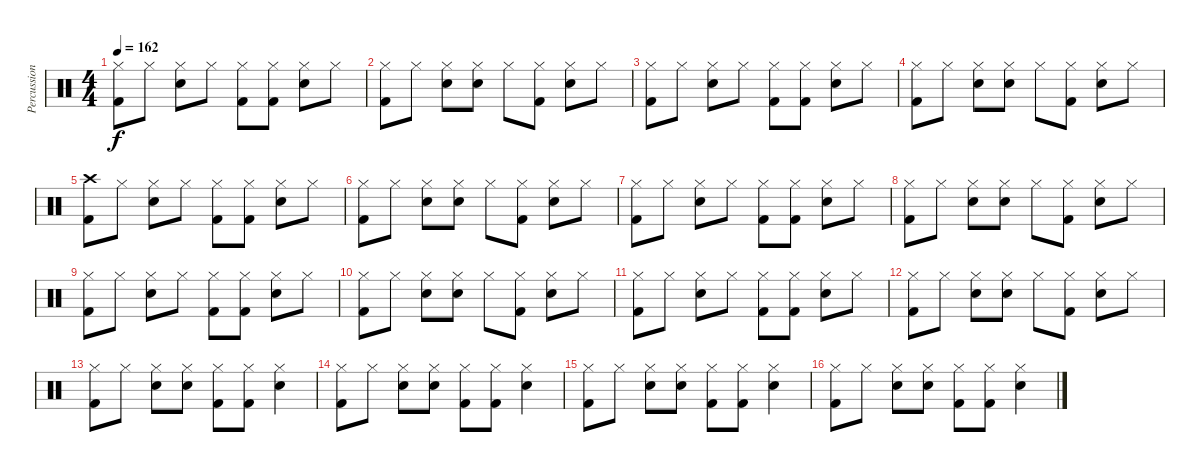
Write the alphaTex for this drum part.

\track ("Percussion" "Percussion") {instrument percussion}
\staff {score}
\articulation defaults
\ts (4 4)
\tempo 162
\clef neutral
\ks c
("Hi-Hat (closed)" "Kick (hit) 2").8{dy f} "Hi-Hat (closed)".8 ("Hi-Hat (closed)" "Electric Snare (hit)").8 "Hi-Hat (closed)".8 ("Hi-Hat (closed)" "Kick (hit) 2").8 ("Hi-Hat (closed)" "Kick (hit) 2").8 ("Hi-Hat (closed)" "Electric Snare (hit)").8 "Hi-Hat (closed)".8 |
("Hi-Hat (closed)" "Kick (hit) 2").8 "Hi-Hat (closed)".8 ("Hi-Hat (closed)" "Electric Snare (hit)").8 ("Hi-Hat (closed)" "Electric Snare (hit)").8 "Hi-Hat (closed)".8 ("Hi-Hat (closed)" "Kick (hit) 2").8 ("Hi-Hat (closed)" "Electric Snare (hit)").8 "Hi-Hat (closed)".8 |
("Hi-Hat (closed)" "Kick (hit) 2").8 "Hi-Hat (closed)".8 ("Hi-Hat (closed)" "Electric Snare (hit)").8 "Hi-Hat (closed)".8 ("Hi-Hat (closed)" "Kick (hit) 2").8 ("Hi-Hat (closed)" "Kick (hit) 2").8 ("Hi-Hat (closed)" "Electric Snare (hit)").8 "Hi-Hat (closed)".8 |
("Hi-Hat (closed)" "Kick (hit) 2").8 "Hi-Hat (closed)".8 ("Hi-Hat (closed)" "Electric Snare (hit)").8 ("Hi-Hat (closed)" "Electric Snare (hit)").8 "Hi-Hat (closed)".8 ("Hi-Hat (closed)" "Kick (hit) 2").8 ("Hi-Hat (closed)" "Electric Snare (hit)").8 "Hi-Hat (closed)".8 |
("Crash high (hit)" "Kick (hit) 2").8 "Hi-Hat (closed)".8 ("Hi-Hat (closed)" "Electric Snare (hit)").8 "Hi-Hat (closed)".8 ("Hi-Hat (closed)" "Kick (hit) 2").8 ("Hi-Hat (closed)" "Kick (hit) 2").8 ("Hi-Hat (closed)" "Electric Snare (hit)").8 "Hi-Hat (closed)".8 |
("Hi-Hat (closed)" "Kick (hit) 2").8 "Hi-Hat (closed)".8 ("Hi-Hat (closed)" "Electric Snare (hit)").8 ("Hi-Hat (closed)" "Electric Snare (hit)").8 "Hi-Hat (closed)".8 ("Hi-Hat (closed)" "Kick (hit) 2").8 ("Hi-Hat (closed)" "Electric Snare (hit)").8 "Hi-Hat (closed)".8 |
("Hi-Hat (closed)" "Kick (hit) 2").8 "Hi-Hat (closed)".8 ("Hi-Hat (closed)" "Electric Snare (hit)").8 "Hi-Hat (closed)".8 ("Hi-Hat (closed)" "Kick (hit) 2").8 ("Hi-Hat (closed)" "Kick (hit) 2").8 ("Hi-Hat (closed)" "Electric Snare (hit)").8 "Hi-Hat (closed)".8 |
("Hi-Hat (closed)" "Kick (hit) 2").8 "Hi-Hat (closed)".8 ("Hi-Hat (closed)" "Electric Snare (hit)").8 ("Hi-Hat (closed)" "Electric Snare (hit)").8 "Hi-Hat (closed)".8 ("Hi-Hat (closed)" "Kick (hit) 2").8 ("Hi-Hat (closed)" "Electric Snare (hit)").8 "Hi-Hat (closed)".8 |
("Hi-Hat (closed)" "Kick (hit) 2").8 "Hi-Hat (closed)".8 ("Hi-Hat (closed)" "Electric Snare (hit)").8 "Hi-Hat (closed)".8 ("Hi-Hat (closed)" "Kick (hit) 2").8 ("Hi-Hat (closed)" "Kick (hit) 2").8 ("Hi-Hat (closed)" "Electric Snare (hit)").8 "Hi-Hat (closed)".8 |
("Hi-Hat (closed)" "Kick (hit) 2").8 "Hi-Hat (closed)".8 ("Hi-Hat (closed)" "Electric Snare (hit)").8 ("Hi-Hat (closed)" "Electric Snare (hit)").8 "Hi-Hat (closed)".8 ("Hi-Hat (closed)" "Kick (hit) 2").8 ("Hi-Hat (closed)" "Electric Snare (hit)").8 "Hi-Hat (closed)".8 |
("Hi-Hat (closed)" "Kick (hit) 2").8 "Hi-Hat (closed)".8 ("Hi-Hat (closed)" "Electric Snare (hit)").8 "Hi-Hat (closed)".8 ("Hi-Hat (closed)" "Kick (hit) 2").8 ("Hi-Hat (closed)" "Kick (hit) 2").8 ("Hi-Hat (closed)" "Electric Snare (hit)").8 "Hi-Hat (closed)".8 |
("Hi-Hat (closed)" "Kick (hit) 2").8 "Hi-Hat (closed)".8 ("Hi-Hat (closed)" "Electric Snare (hit)").8 ("Hi-Hat (closed)" "Electric Snare (hit)").8 "Hi-Hat (closed)".8 ("Hi-Hat (closed)" "Kick (hit) 2").8 ("Hi-Hat (closed)" "Electric Snare (hit)").8 "Hi-Hat (closed)".8 |
("Hi-Hat (closed)" "Kick (hit) 2").8 "Hi-Hat (closed)".8 ("Hi-Hat (closed)" "Electric Snare (hit)").8 ("Hi-Hat (closed)" "Electric Snare (hit)").8 ("Hi-Hat (closed)" "Kick (hit) 2").8 ("Hi-Hat (closed)" "Kick (hit) 2").8 ("Hi-Hat (closed)" "Electric Snare (hit)").4 |
("Hi-Hat (closed)" "Kick (hit) 2").8 "Hi-Hat (closed)".8 ("Hi-Hat (closed)" "Electric Snare (hit)").8 ("Hi-Hat (closed)" "Electric Snare (hit)").8 ("Hi-Hat (closed)" "Kick (hit) 2").8 ("Hi-Hat (closed)" "Kick (hit) 2").8 ("Hi-Hat (closed)" "Electric Snare (hit)").4 |
("Hi-Hat (closed)" "Kick (hit) 2").8 "Hi-Hat (closed)".8 ("Hi-Hat (closed)" "Electric Snare (hit)").8 ("Hi-Hat (closed)" "Electric Snare (hit)").8 ("Hi-Hat (closed)" "Kick (hit) 2").8 ("Hi-Hat (closed)" "Kick (hit) 2").8 ("Hi-Hat (closed)" "Electric Snare (hit)").4 |
("Hi-Hat (closed)" "Kick (hit) 2").8 "Hi-Hat (closed)".8 ("Hi-Hat (closed)" "Electric Snare (hit)").8 ("Hi-Hat (closed)" "Electric Snare (hit)").8 ("Hi-Hat (closed)" "Kick (hit) 2").8 ("Hi-Hat (closed)" "Kick (hit) 2").8 ("Hi-Hat (closed)" "Electric Snare (hit)").4
